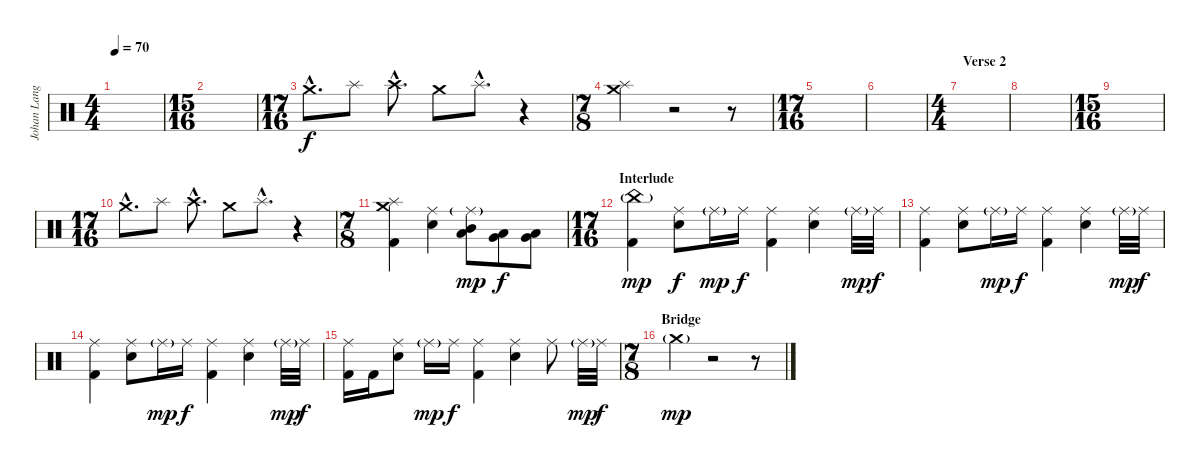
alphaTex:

\track ("Johan Langell" "Johan Lang") {instrument percussion}
\staff {score}
\articulation defaults
\ts (4 4)
\tempo 70
\clef neutral
\ks c
|
\ts (15 16)
|
\ts (17 16)
"Crash medium (hit)"{hac}.8{d} "Splash (hit)".8 "Crash high (hit)"{hac}.8{d} "Crash medium (hit)".8 "Splash (hit)"{hac}.8{d} r.4 |
\ts (7 8)
("Crash medium (hit)" "Splash (hit)").4 r.2 r.8 |
\ts (17 16)
|
|
\ts (4 4)
\section ("" "Verse 2")
|
|
\ts (15 16)
|
\ts (17 16)
"Crash medium (hit)"{hac}.8{d} "Splash (hit)".8 "Crash high (hit)"{hac}.8{d} "Crash medium (hit)".8 "Splash (hit)"{hac}.8{d} r.4 |
\ts (7 8)
("Crash medium (hit)" "Splash (hit)" "Kick (hit) 2").4 ("Ride (middle)" "Snare (hit) 2").4 ("Ride (middle)"{g} "Mid Tom (hit)" "Low Tom (hit)").8{dy mp} ("Low Tom (hit)" "Very Low Tom (hit)").8{dy f} ("Very Low Tom (hit)" "Low Floor Tom (hit)").8 |
\ts (17 16)
\section ("" "Interlude")
("China (hit)"{g} "Kick (hit) 2").4{dy mp} ("Ride (middle)" "Snare (hit) 2").8{dy f} "Ride (middle)"{g}.16{dy mp} "Ride (middle)".16{dy f} ("Ride (middle)" "Kick (hit) 2").4 ("Ride (middle)" "Snare (hit) 2").4 "Ride (middle)"{g}.32{dy mp} "Ride (middle)".32{dy f} |
("Ride (middle)" "Kick (hit) 2").4 ("Ride (middle)" "Snare (hit) 2").8 "Ride (middle)"{g}.16{dy mp} "Ride (middle)".16{dy f} ("Ride (middle)" "Kick (hit) 2").4 ("Ride (middle)" "Snare (hit) 2").4 "Ride (middle)"{g}.32{dy mp} "Ride (middle)".32{dy f} |
("Ride (middle)" "Kick (hit) 2").4 ("Ride (middle)" "Snare (hit) 2").8 "Ride (middle)"{g}.16{dy mp} "Ride (middle)".16{dy f} ("Ride (middle)" "Kick (hit) 2").4 ("Ride (middle)" "Snare (hit) 2").4 "Ride (middle)"{g}.32{dy mp} "Ride (middle)".32{dy f} |
("Ride (middle)" "Kick (hit) 2").16 "Kick (hit) 2".16 ("Ride (middle)" "Snare (hit) 2").8 "Ride (middle)"{g}.16{dy mp} "Ride (middle)".16{dy f} ("Ride (middle)" "Kick (hit) 2").4 ("Ride (middle)" "Snare (hit) 2").4 "Ride (middle)".8 "Ride (middle)"{g}.32{dy mp} "Ride (middle)".32{dy f} |
\ts (7 8)
\section ("" "Bridge")
"Crash medium (hit)"{g}.4{dy mp} r.2 r.8
